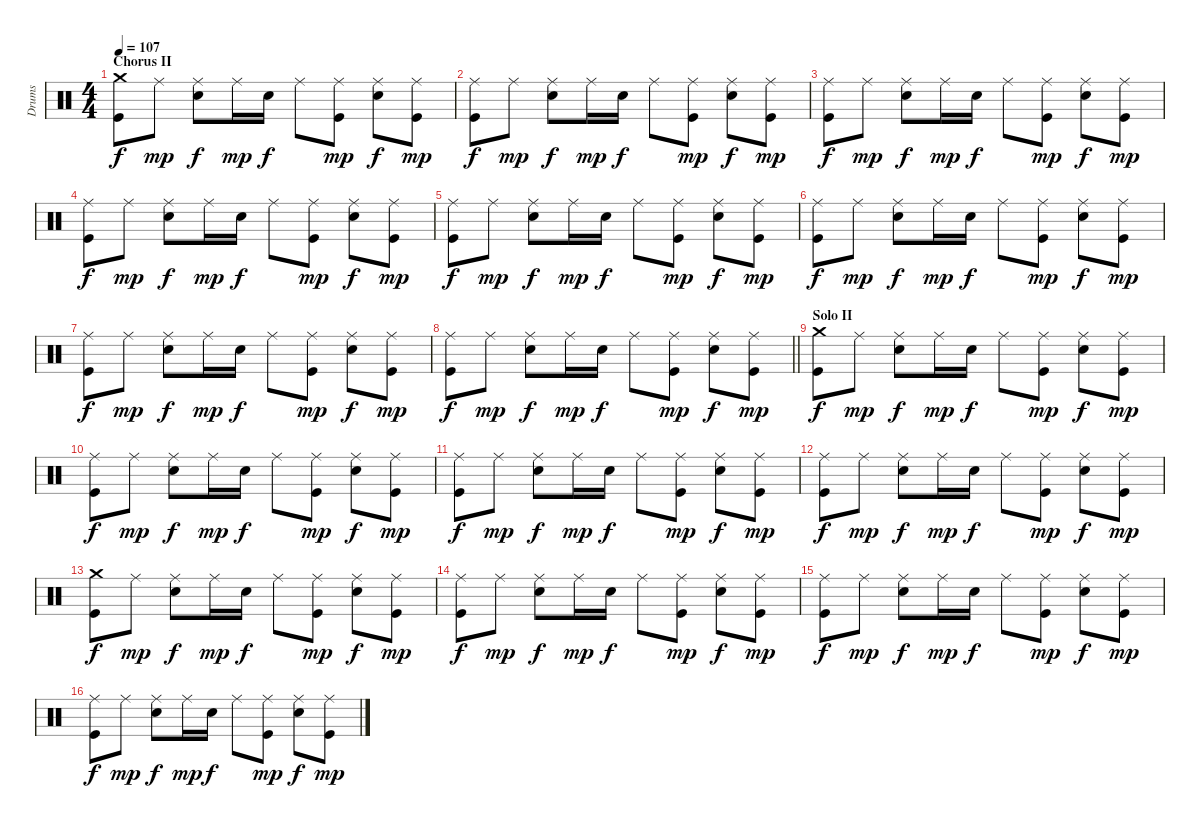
\track ("Drums" "Drums") {instrument percussion}
\staff {score}
\articulation defaults
\ts (4 4)
\section ("" "Chorus II")
\tempo 107
\clef neutral
\ks c
("Crash medium (hit)" "Kick (hit)").8{dy f} "Ride (middle)".8{dy mp} ("Ride (middle)" "Electric Snare (hit)").8{dy f} "Ride (middle)".16{dy mp} "Electric Snare (hit)".16{dy f} "Ride (middle)".8 ("Ride (middle)" "Kick (hit)").8{dy mp} ("Ride (middle)" "Electric Snare (hit)").8{dy f} ("Ride (middle)" "Kick (hit)").8{dy mp} |
("Ride (middle)" "Kick (hit)").8{dy f} "Ride (middle)".8{dy mp} ("Ride (middle)" "Electric Snare (hit)").8{dy f} "Ride (middle)".16{dy mp} "Electric Snare (hit)".16{dy f} "Ride (middle)".8 ("Ride (middle)" "Kick (hit)").8{dy mp} ("Ride (middle)" "Electric Snare (hit)").8{dy f} ("Ride (middle)" "Kick (hit)").8{dy mp} |
("Ride (middle)" "Kick (hit)").8{dy f} "Ride (middle)".8{dy mp} ("Ride (middle)" "Electric Snare (hit)").8{dy f} "Ride (middle)".16{dy mp} "Electric Snare (hit)".16{dy f} "Ride (middle)".8 ("Ride (middle)" "Kick (hit)").8{dy mp} ("Ride (middle)" "Electric Snare (hit)").8{dy f} ("Ride (middle)" "Kick (hit)").8{dy mp} |
("Ride (middle)" "Kick (hit)").8{dy f} "Ride (middle)".8{dy mp} ("Ride (middle)" "Electric Snare (hit)").8{dy f} "Ride (middle)".16{dy mp} "Electric Snare (hit)".16{dy f} "Ride (middle)".8 ("Ride (middle)" "Kick (hit)").8{dy mp} ("Ride (middle)" "Electric Snare (hit)").8{dy f} ("Ride (middle)" "Kick (hit)").8{dy mp} |
("Ride (middle)" "Kick (hit)").8{dy f} "Ride (middle)".8{dy mp} ("Ride (middle)" "Electric Snare (hit)").8{dy f} "Ride (middle)".16{dy mp} "Electric Snare (hit)".16{dy f} "Ride (middle)".8 ("Ride (middle)" "Kick (hit)").8{dy mp} ("Ride (middle)" "Electric Snare (hit)").8{dy f} ("Ride (middle)" "Kick (hit)").8{dy mp} |
("Ride (middle)" "Kick (hit)").8{dy f} "Ride (middle)".8{dy mp} ("Ride (middle)" "Electric Snare (hit)").8{dy f} "Ride (middle)".16{dy mp} "Electric Snare (hit)".16{dy f} "Ride (middle)".8 ("Ride (middle)" "Kick (hit)").8{dy mp} ("Ride (middle)" "Electric Snare (hit)").8{dy f} ("Ride (middle)" "Kick (hit)").8{dy mp} |
("Ride (middle)" "Kick (hit)").8{dy f} "Ride (middle)".8{dy mp} ("Ride (middle)" "Electric Snare (hit)").8{dy f} "Ride (middle)".16{dy mp} "Electric Snare (hit)".16{dy f} "Ride (middle)".8 ("Ride (middle)" "Kick (hit)").8{dy mp} ("Ride (middle)" "Electric Snare (hit)").8{dy f} ("Ride (middle)" "Kick (hit)").8{dy mp} |
\barLineRight lightlight
("Ride (middle)" "Kick (hit)").8{dy f} "Ride (middle)".8{dy mp} ("Ride (middle)" "Electric Snare (hit)").8{dy f} "Ride (middle)".16{dy mp} "Electric Snare (hit)".16{dy f} "Ride (middle)".8 ("Ride (middle)" "Kick (hit)").8{dy mp} ("Ride (middle)" "Electric Snare (hit)").8{dy f} ("Ride (middle)" "Kick (hit)").8{dy mp} |
\section ("" "Solo II")
("Crash medium (hit)" "Kick (hit)").8{dy f} "Ride (middle)".8{dy mp} ("Ride (middle)" "Electric Snare (hit)").8{dy f} "Ride (middle)".16{dy mp} "Electric Snare (hit)".16{dy f} "Ride (middle)".8 ("Ride (middle)" "Kick (hit)").8{dy mp} ("Ride (middle)" "Electric Snare (hit)").8{dy f} ("Ride (middle)" "Kick (hit)").8{dy mp} |
("Ride (middle)" "Kick (hit)").8{dy f} "Ride (middle)".8{dy mp} ("Ride (middle)" "Electric Snare (hit)").8{dy f} "Ride (middle)".16{dy mp} "Electric Snare (hit)".16{dy f} "Ride (middle)".8 ("Ride (middle)" "Kick (hit)").8{dy mp} ("Ride (middle)" "Electric Snare (hit)").8{dy f} ("Ride (middle)" "Kick (hit)").8{dy mp} |
("Ride (middle)" "Kick (hit)").8{dy f} "Ride (middle)".8{dy mp} ("Ride (middle)" "Electric Snare (hit)").8{dy f} "Ride (middle)".16{dy mp} "Electric Snare (hit)".16{dy f} "Ride (middle)".8 ("Ride (middle)" "Kick (hit)").8{dy mp} ("Ride (middle)" "Electric Snare (hit)").8{dy f} ("Ride (middle)" "Kick (hit)").8{dy mp} |
("Ride (middle)" "Kick (hit)").8{dy f} "Ride (middle)".8{dy mp} ("Ride (middle)" "Electric Snare (hit)").8{dy f} "Ride (middle)".16{dy mp} "Electric Snare (hit)".16{dy f} "Ride (middle)".8 ("Ride (middle)" "Kick (hit)").8{dy mp} ("Ride (middle)" "Electric Snare (hit)").8{dy f} ("Ride (middle)" "Kick (hit)").8{dy mp} |
("Crash medium (hit)" "Kick (hit)").8{dy f} "Ride (middle)".8{dy mp} ("Ride (middle)" "Electric Snare (hit)").8{dy f} "Ride (middle)".16{dy mp} "Electric Snare (hit)".16{dy f} "Ride (middle)".8 ("Ride (middle)" "Kick (hit)").8{dy mp} ("Ride (middle)" "Electric Snare (hit)").8{dy f} ("Ride (middle)" "Kick (hit)").8{dy mp} |
("Ride (middle)" "Kick (hit)").8{dy f} "Ride (middle)".8{dy mp} ("Ride (middle)" "Electric Snare (hit)").8{dy f} "Ride (middle)".16{dy mp} "Electric Snare (hit)".16{dy f} "Ride (middle)".8 ("Ride (middle)" "Kick (hit)").8{dy mp} ("Ride (middle)" "Electric Snare (hit)").8{dy f} ("Ride (middle)" "Kick (hit)").8{dy mp} |
("Ride (middle)" "Kick (hit)").8{dy f} "Ride (middle)".8{dy mp} ("Ride (middle)" "Electric Snare (hit)").8{dy f} "Ride (middle)".16{dy mp} "Electric Snare (hit)".16{dy f} "Ride (middle)".8 ("Ride (middle)" "Kick (hit)").8{dy mp} ("Ride (middle)" "Electric Snare (hit)").8{dy f} ("Ride (middle)" "Kick (hit)").8{dy mp} |
("Ride (middle)" "Kick (hit)").8{dy f} "Ride (middle)".8{dy mp} ("Ride (middle)" "Electric Snare (hit)").8{dy f} "Ride (middle)".16{dy mp} "Electric Snare (hit)".16{dy f} "Ride (middle)".8 ("Ride (middle)" "Kick (hit)").8{dy mp} ("Ride (middle)" "Electric Snare (hit)").8{dy f} ("Ride (middle)" "Kick (hit)").8{dy mp}
